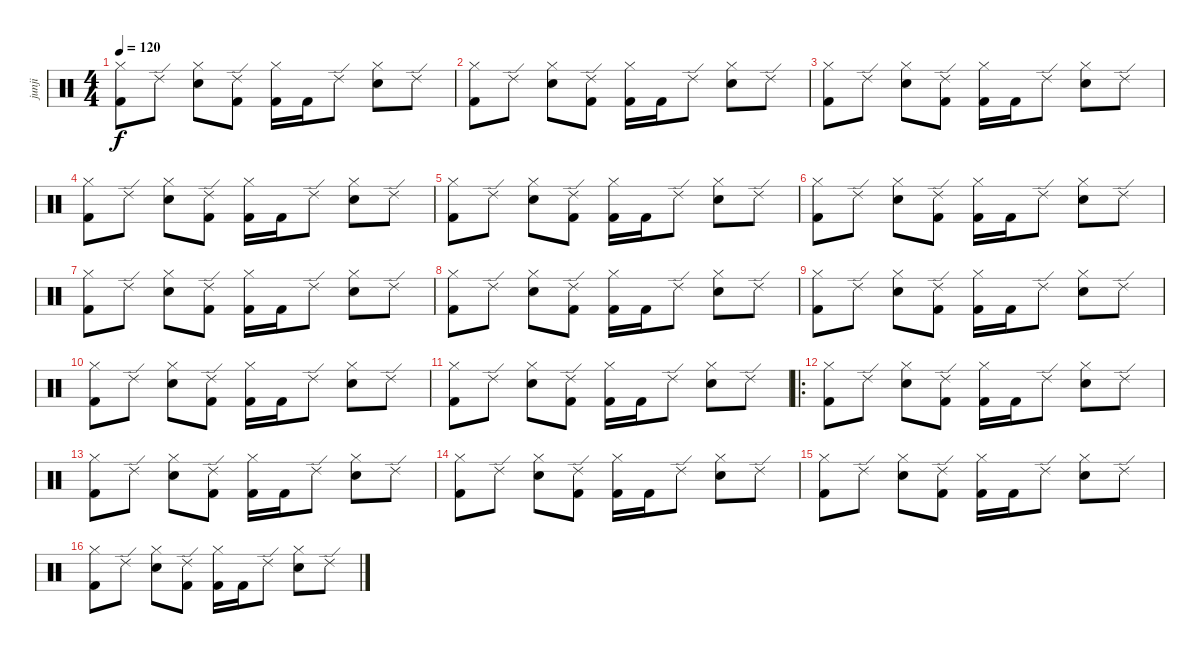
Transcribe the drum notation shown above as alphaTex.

\track ("junji" "junji") {instrument percussion}
\staff {score}
\articulation defaults
\ts (4 4)
\tempo 120
\clef neutral
\ks c
("Hi-Hat (closed)" "Kick (hit) 2").8{dy f} "Ride (edge) 2".8 ("Hi-Hat (closed)" "Snare (hit) 2").8 ("Ride (edge) 2" "Kick (hit) 2").8 ("Hi-Hat (closed)" "Kick (hit) 2"{x}).16 "Kick (hit) 2".16 "Ride (edge) 2".8 ("Hi-Hat (closed)" "Snare (hit) 2").8 "Ride (edge) 2".8 |
("Hi-Hat (closed)" "Kick (hit) 2").8 "Ride (edge) 2".8 ("Hi-Hat (closed)" "Snare (hit) 2").8 ("Ride (edge) 2" "Kick (hit) 2").8 ("Hi-Hat (closed)" "Kick (hit) 2"{x}).16 "Kick (hit) 2".16 "Ride (edge) 2".8 ("Hi-Hat (closed)" "Snare (hit) 2").8 "Ride (edge) 2".8 |
("Hi-Hat (closed)" "Kick (hit) 2").8 "Ride (edge) 2".8 ("Hi-Hat (closed)" "Snare (hit) 2").8 ("Ride (edge) 2" "Kick (hit) 2").8 ("Hi-Hat (closed)" "Kick (hit) 2"{x}).16 "Kick (hit) 2".16 "Ride (edge) 2".8 ("Hi-Hat (closed)" "Snare (hit) 2").8 "Ride (edge) 2".8 |
("Hi-Hat (closed)" "Kick (hit) 2").8 "Ride (edge) 2".8 ("Hi-Hat (closed)" "Snare (hit) 2").8 ("Ride (edge) 2" "Kick (hit) 2").8 ("Hi-Hat (closed)" "Kick (hit) 2"{x}).16 "Kick (hit) 2".16 "Ride (edge) 2".8 ("Hi-Hat (closed)" "Snare (hit) 2").8 "Ride (edge) 2".8 |
("Hi-Hat (closed)" "Kick (hit) 2").8 "Ride (edge) 2".8 ("Hi-Hat (closed)" "Snare (hit) 2").8 ("Ride (edge) 2" "Kick (hit) 2").8 ("Hi-Hat (closed)" "Kick (hit) 2"{x}).16 "Kick (hit) 2".16 "Ride (edge) 2".8 ("Hi-Hat (closed)" "Snare (hit) 2").8 "Ride (edge) 2".8 |
("Hi-Hat (closed)" "Kick (hit) 2").8 "Ride (edge) 2".8 ("Hi-Hat (closed)" "Snare (hit) 2").8 ("Ride (edge) 2" "Kick (hit) 2").8 ("Hi-Hat (closed)" "Kick (hit) 2"{x}).16 "Kick (hit) 2".16 "Ride (edge) 2".8 ("Hi-Hat (closed)" "Snare (hit) 2").8 "Ride (edge) 2".8 |
("Hi-Hat (closed)" "Kick (hit) 2").8 "Ride (edge) 2".8 ("Hi-Hat (closed)" "Snare (hit) 2").8 ("Ride (edge) 2" "Kick (hit) 2").8 ("Hi-Hat (closed)" "Kick (hit) 2"{x}).16 "Kick (hit) 2".16 "Ride (edge) 2".8 ("Hi-Hat (closed)" "Snare (hit) 2").8 "Ride (edge) 2".8 |
("Hi-Hat (closed)" "Kick (hit) 2").8 "Ride (edge) 2".8 ("Hi-Hat (closed)" "Snare (hit) 2").8 ("Ride (edge) 2" "Kick (hit) 2").8 ("Hi-Hat (closed)" "Kick (hit) 2"{x}).16 "Kick (hit) 2".16 "Ride (edge) 2".8 ("Hi-Hat (closed)" "Snare (hit) 2").8 "Ride (edge) 2".8 |
("Hi-Hat (closed)" "Kick (hit) 2").8 "Ride (edge) 2".8 ("Hi-Hat (closed)" "Snare (hit) 2").8 ("Ride (edge) 2" "Kick (hit) 2").8 ("Hi-Hat (closed)" "Kick (hit) 2"{x}).16 "Kick (hit) 2".16 "Ride (edge) 2".8 ("Hi-Hat (closed)" "Snare (hit) 2").8 "Ride (edge) 2".8 |
("Hi-Hat (closed)" "Kick (hit) 2").8 "Ride (edge) 2".8 ("Hi-Hat (closed)" "Snare (hit) 2").8 ("Ride (edge) 2" "Kick (hit) 2").8 ("Hi-Hat (closed)" "Kick (hit) 2"{x}).16 "Kick (hit) 2".16 "Ride (edge) 2".8 ("Hi-Hat (closed)" "Snare (hit) 2").8 "Ride (edge) 2".8 |
("Hi-Hat (closed)" "Kick (hit) 2").8 "Ride (edge) 2".8 ("Hi-Hat (closed)" "Snare (hit) 2").8 ("Ride (edge) 2" "Kick (hit) 2").8 ("Hi-Hat (closed)" "Kick (hit) 2"{x}).16 "Kick (hit) 2".16 "Ride (edge) 2".8 ("Hi-Hat (closed)" "Snare (hit) 2").8 "Ride (edge) 2".8 |
\ro
("Hi-Hat (closed)" "Kick (hit) 2").8 "Ride (edge) 2".8 ("Hi-Hat (closed)" "Snare (hit) 2").8 ("Ride (edge) 2" "Kick (hit) 2").8 ("Hi-Hat (closed)" "Kick (hit) 2"{x}).16 "Kick (hit) 2".16 "Ride (edge) 2".8 ("Hi-Hat (closed)" "Snare (hit) 2").8 "Ride (edge) 2".8 |
("Hi-Hat (closed)" "Kick (hit) 2").8 "Ride (edge) 2".8 ("Hi-Hat (closed)" "Snare (hit) 2").8 ("Ride (edge) 2" "Kick (hit) 2").8 ("Hi-Hat (closed)" "Kick (hit) 2"{x}).16 "Kick (hit) 2".16 "Ride (edge) 2".8 ("Hi-Hat (closed)" "Snare (hit) 2").8 "Ride (edge) 2".8 |
("Hi-Hat (closed)" "Kick (hit) 2").8 "Ride (edge) 2".8 ("Hi-Hat (closed)" "Snare (hit) 2").8 ("Ride (edge) 2" "Kick (hit) 2").8 ("Hi-Hat (closed)" "Kick (hit) 2"{x}).16 "Kick (hit) 2".16 "Ride (edge) 2".8 ("Hi-Hat (closed)" "Snare (hit) 2").8 "Ride (edge) 2".8 |
("Hi-Hat (closed)" "Kick (hit) 2").8 "Ride (edge) 2".8 ("Hi-Hat (closed)" "Snare (hit) 2").8 ("Ride (edge) 2" "Kick (hit) 2").8 ("Hi-Hat (closed)" "Kick (hit) 2"{x}).16 "Kick (hit) 2".16 "Ride (edge) 2".8 ("Hi-Hat (closed)" "Snare (hit) 2").8 "Ride (edge) 2".8 |
("Hi-Hat (closed)" "Kick (hit) 2").8 "Ride (edge) 2".8 ("Hi-Hat (closed)" "Snare (hit) 2").8 ("Ride (edge) 2" "Kick (hit) 2").8 ("Hi-Hat (closed)" "Kick (hit) 2"{x}).16 "Kick (hit) 2".16 "Ride (edge) 2".8 ("Hi-Hat (closed)" "Snare (hit) 2").8 "Ride (edge) 2".8
